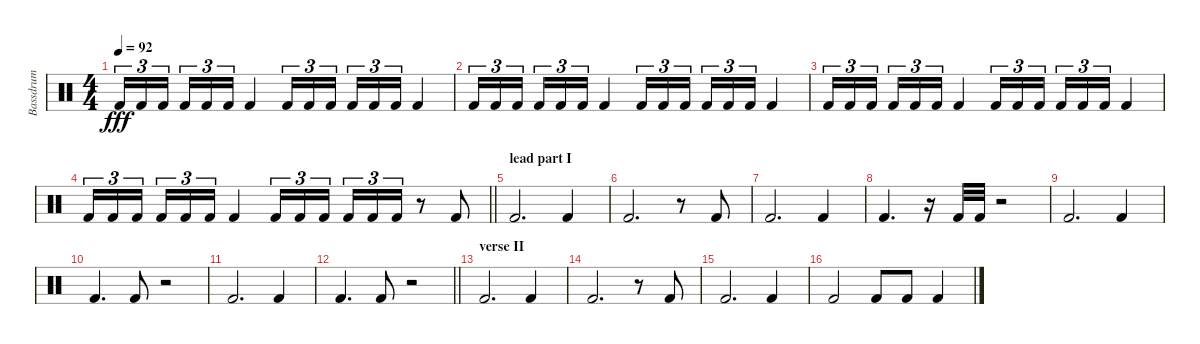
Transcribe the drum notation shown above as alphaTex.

\track ("Bassdrum" "Bassdrum") {instrument percussion}
\staff {score}
\articulation defaults
\ts (4 4)
\tempo 92
\clef neutral
\ks c "Kick (hit) 2".16{tu (3 2) dy fff} "Kick (hit) 2".16{tu (3 2)} "Kick (hit) 2".16{tu (3 2) beam splitsecondary} "Kick (hit) 2".16{tu (3 2)} "Kick (hit) 2".16{tu (3 2)} "Kick (hit) 2".16{tu (3 2)} "Kick (hit) 2".4 "Kick (hit) 2".16{tu (3 2)} "Kick (hit) 2".16{tu (3 2)} "Kick (hit) 2".16{tu (3 2) beam splitsecondary} "Kick (hit) 2".16{tu (3 2)} "Kick (hit) 2".16{tu (3 2)} "Kick (hit) 2".16{tu (3 2)} "Kick (hit) 2".4
|
"Kick (hit) 2".16{tu (3 2)} "Kick (hit) 2".16{tu (3 2)} "Kick (hit) 2".16{tu (3 2) beam splitsecondary} "Kick (hit) 2".16{tu (3 2)} "Kick (hit) 2".16{tu (3 2)} "Kick (hit) 2".16{tu (3 2)} "Kick (hit) 2".4 "Kick (hit) 2".16{tu (3 2)} "Kick (hit) 2".16{tu (3 2)} "Kick (hit) 2".16{tu (3 2) beam splitsecondary} "Kick (hit) 2".16{tu (3 2)} "Kick (hit) 2".16{tu (3 2)} "Kick (hit) 2".16{tu (3 2)} "Kick (hit) 2".4 |
"Kick (hit) 2".16{tu (3 2)} "Kick (hit) 2".16{tu (3 2)} "Kick (hit) 2".16{tu (3 2) beam splitsecondary} "Kick (hit) 2".16{tu (3 2)} "Kick (hit) 2".16{tu (3 2)} "Kick (hit) 2".16{tu (3 2)} "Kick (hit) 2".4 "Kick (hit) 2".16{tu (3 2)} "Kick (hit) 2".16{tu (3 2)} "Kick (hit) 2".16{tu (3 2) beam splitsecondary} "Kick (hit) 2".16{tu (3 2)} "Kick (hit) 2".16{tu (3 2)} "Kick (hit) 2".16{tu (3 2)} "Kick (hit) 2".4 |
\barLineRight lightlight "Kick (hit) 2".16{tu (3 2)} "Kick (hit) 2".16{tu (3 2)} "Kick (hit) 2".16{tu (3 2) beam splitsecondary} "Kick (hit) 2".16{tu (3 2)} "Kick (hit) 2".16{tu (3 2)} "Kick (hit) 2".16{tu (3 2)} "Kick (hit) 2".4 "Kick (hit) 2".16{tu (3 2)} "Kick (hit) 2".16{tu (3 2)} "Kick (hit) 2".16{tu (3 2) beam splitsecondary} "Kick (hit) 2".16{tu (3 2)} "Kick (hit) 2".16{tu (3 2)} "Kick (hit) 2".16{tu (3 2)}
r.8 "Kick (hit) 2".8 |
\section ("" "lead part I")
"Kick (hit) 2".2{d} "Kick (hit) 2".4 |
"Kick (hit) 2".2{d} r.8 "Kick (hit) 2".8 |
"Kick (hit) 2".2{d} "Kick (hit) 2".4 |
"Kick (hit) 2".4{d} r.16 "Kick (hit) 2".32 "Kick (hit) 2".32 r.2 |
"Kick (hit) 2".2{d} "Kick (hit) 2".4 |
"Kick (hit) 2".4{d} "Kick (hit) 2".8 r.2 |
"Kick (hit) 2".2{d} "Kick (hit) 2".4 |
\barLineRight lightlight "Kick (hit) 2".4{d} "Kick (hit) 2".8
r.2 |
\section ("" "verse II")
"Kick (hit) 2".2{d} "Kick (hit) 2".4 |
"Kick (hit) 2".2{d} r.8 "Kick (hit) 2".8 |
"Kick (hit) 2".2{d} "Kick (hit) 2".4 |
"Kick (hit) 2".2 "Kick (hit) 2".8 "Kick (hit) 2".8 "Kick (hit) 2".4
